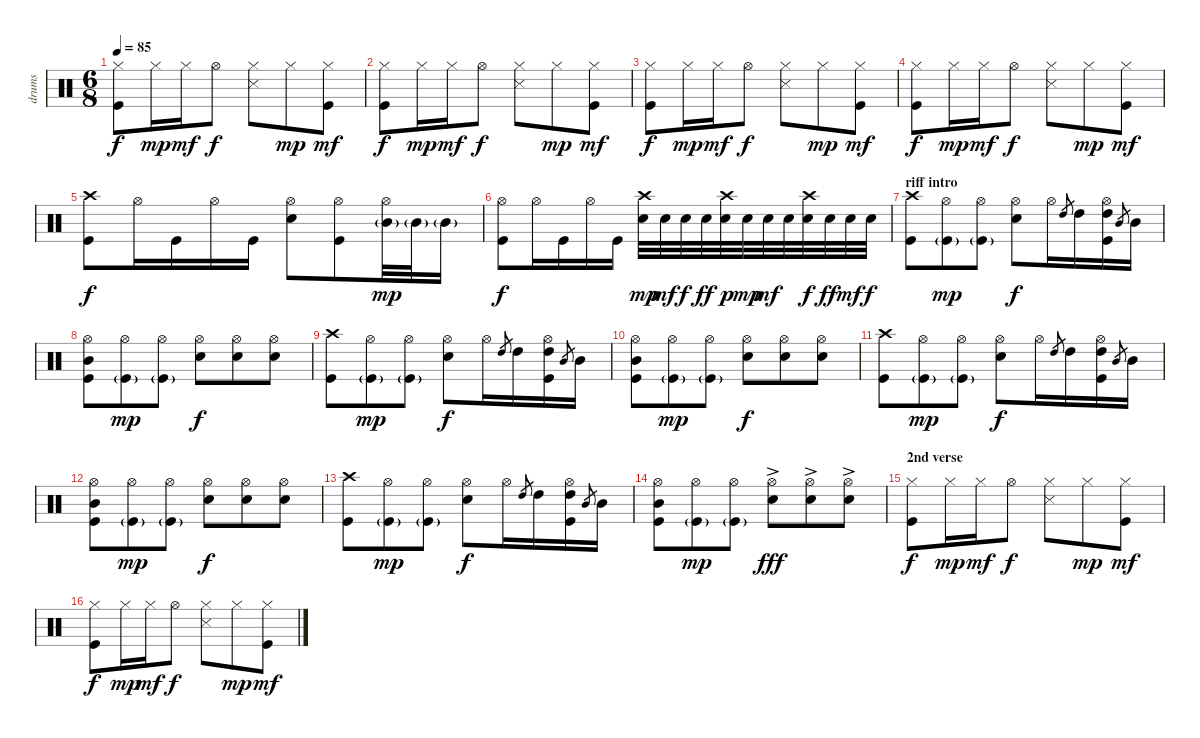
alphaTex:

\track ("drums" "drums") {instrument percussion}
\staff {score}
\articulation defaults
\ts (6 8)
\tempo 85
\clef neutral
\ks c
("Hi-Hat (closed)" "Kick (hit)").8{dy f} "Hi-Hat (closed)".16{dy mp} "Hi-Hat (closed)".16{dy mf} "Hi-Hat (open)".8{dy f} ("Hi-Hat (closed)" "Snare (side stick) 3").8 "Hi-Hat (closed)".8{dy mp} ("Hi-Hat (closed)" "Kick (hit)").8{dy mf} |
("Hi-Hat (closed)" "Kick (hit)").8{dy f} "Hi-Hat (closed)".16{dy mp} "Hi-Hat (closed)".16{dy mf} "Hi-Hat (open)".8{dy f} ("Hi-Hat (closed)" "Snare (side stick) 3").8 "Hi-Hat (closed)".8{dy mp} ("Hi-Hat (closed)" "Kick (hit)").8{dy mf} |
("Hi-Hat (closed)" "Kick (hit)").8{dy f} "Hi-Hat (closed)".16{dy mp} "Hi-Hat (closed)".16{dy mf} "Hi-Hat (open)".8{dy f} ("Hi-Hat (closed)" "Snare (side stick) 3").8 "Hi-Hat (closed)".8{dy mp} ("Hi-Hat (closed)" "Kick (hit)").8{dy mf} |
("Hi-Hat (closed)" "Kick (hit)").8{dy f} "Hi-Hat (closed)".16{dy mp} "Hi-Hat (closed)".16{dy mf} "Hi-Hat (open)".8{dy f} ("Hi-Hat (closed)" "Snare (side stick) 3").8 "Hi-Hat (closed)".8{dy mp} ("Hi-Hat (closed)" "Kick (hit)").8{dy mf} |
("Crash high (hit)" "Kick (hit)").8{dy f} "Hi-Hat (open)".16 "Kick (hit)".16 "Hi-Hat (open)".16 "Kick (hit)".16 ("Hi-Hat (open)" "Electric Snare (hit)").8 ("Hi-Hat (open)" "Kick (hit)").8 ("Hi-Hat (open)" "Mid Tom (hit)"{g}).32{dy mp} "Mid Tom (hit)"{g}.32 "Mid Tom (hit)"{g}.16 |
("Hi-Hat (open)" "Kick (hit)").8{dy f} "Hi-Hat (open)".16 "Kick (hit)".16 "Hi-Hat (open)".16 "Kick (hit)".16 ("Crash high (hit)" "Electric Snare (hit)").32{dy mp} "Electric Snare (hit)".32{dy mf} "Electric Snare (hit)".32{dy f} "Electric Snare (hit)".32{dy ff} ("Crash high (hit)" "Electric Snare (hit)").32{dy p} "Electric Snare (hit)".32{dy mp} "Electric Snare (hit)".32{dy mf} "Electric Snare (hit)".32 ("Crash high (hit)" "Electric Snare (hit)").32{dy f} "Electric Snare (hit)".32{dy ff} "Electric Snare (hit)".32{dy mf} "Electric Snare (hit)".32{dy f} |
\section ("" "riff intro")
("Crash high (hit)" "Kick (hit)").8 ("Hi-Hat (open)" "Kick (hit)"{g}).8{dy mp} ("Hi-Hat (open)" "Kick (hit)"{g}).8 ("Hi-Hat (open)" "Electric Snare (hit)").8{dy f} "Hi-Hat (open)".16 "High Tom (hit)".8{gr} "High Tom (hit)".16 ("Hi-Hat (open)" "High Tom (hit)" "Kick (hit)").16 "Mid Tom (hit)".8{gr} "Mid Tom (hit)".16 |
("Hi-Hat (open)" "Mid Tom (hit)" "Kick (hit)").8 ("Hi-Hat (open)" "Kick (hit)"{g}).8{dy mp} ("Hi-Hat (open)" "Kick (hit)"{g}).8 ("Hi-Hat (open)" "Electric Snare (hit)").8{dy f} ("Hi-Hat (open)" "Electric Snare (hit)").8 ("Hi-Hat (open)" "Electric Snare (hit)").8 |
("Crash high (hit)" "Kick (hit)").8 ("Hi-Hat (open)" "Kick (hit)"{g}).8{dy mp} ("Hi-Hat (open)" "Kick (hit)"{g}).8 ("Hi-Hat (open)" "Electric Snare (hit)").8{dy f} "Hi-Hat (open)".16 "High Tom (hit)".8{gr} "High Tom (hit)".16 ("Hi-Hat (open)" "High Tom (hit)" "Kick (hit)").16 "Mid Tom (hit)".8{gr} "Mid Tom (hit)".16 |
("Hi-Hat (open)" "Mid Tom (hit)" "Kick (hit)").8 ("Hi-Hat (open)" "Kick (hit)"{g}).8{dy mp} ("Hi-Hat (open)" "Kick (hit)"{g}).8 ("Hi-Hat (open)" "Electric Snare (hit)").8{dy f} ("Hi-Hat (open)" "Electric Snare (hit)").8 ("Hi-Hat (open)" "Electric Snare (hit)").8 |
("Crash high (hit)" "Kick (hit)").8 ("Hi-Hat (open)" "Kick (hit)"{g}).8{dy mp} ("Hi-Hat (open)" "Kick (hit)"{g}).8 ("Hi-Hat (open)" "Electric Snare (hit)").8{dy f} "Hi-Hat (open)".16 "High Tom (hit)".8{gr} "High Tom (hit)".16 ("Hi-Hat (open)" "High Tom (hit)" "Kick (hit)").16 "Mid Tom (hit)".8{gr} "Mid Tom (hit)".16 |
("Hi-Hat (open)" "Mid Tom (hit)" "Kick (hit)").8 ("Hi-Hat (open)" "Kick (hit)"{g}).8{dy mp} ("Hi-Hat (open)" "Kick (hit)"{g}).8 ("Hi-Hat (open)" "Electric Snare (hit)").8{dy f} ("Hi-Hat (open)" "Electric Snare (hit)").8 ("Hi-Hat (open)" "Electric Snare (hit)").8 |
("Crash high (hit)" "Kick (hit)").8 ("Hi-Hat (open)" "Kick (hit)"{g}).8{dy mp} ("Hi-Hat (open)" "Kick (hit)"{g}).8 ("Hi-Hat (open)" "Electric Snare (hit)").8{dy f} "Hi-Hat (open)".16 "High Tom (hit)".8{gr} "High Tom (hit)".16 ("Hi-Hat (open)" "High Tom (hit)" "Kick (hit)").16 "Mid Tom (hit)".8{gr} "Mid Tom (hit)".16 |
("Hi-Hat (open)" "Mid Tom (hit)" "Kick (hit)").8 ("Hi-Hat (open)" "Kick (hit)"{g}).8{dy mp} ("Hi-Hat (open)" "Kick (hit)"{g}).8 ("Hi-Hat (open)"{ac} "Electric Snare (hit)").8{dy fff} ("Hi-Hat (open)"{ac} "Electric Snare (hit)").8 ("Hi-Hat (open)"{ac} "Electric Snare (hit)").8 |
\section ("" "2nd verse")
("Hi-Hat (closed)" "Kick (hit)").8{dy f} "Hi-Hat (closed)".16{dy mp} "Hi-Hat (closed)".16{dy mf} "Hi-Hat (open)".8{dy f} ("Hi-Hat (closed)" "Snare (side stick) 3").8 "Hi-Hat (closed)".8{dy mp} ("Hi-Hat (closed)" "Kick (hit)").8{dy mf} |
("Hi-Hat (closed)" "Kick (hit)").8{dy f} "Hi-Hat (closed)".16{dy mp} "Hi-Hat (closed)".16{dy mf} "Hi-Hat (open)".8{dy f} ("Hi-Hat (closed)" "Snare (side stick) 3").8 "Hi-Hat (closed)".8{dy mp} ("Hi-Hat (closed)" "Kick (hit)").8{dy mf}
